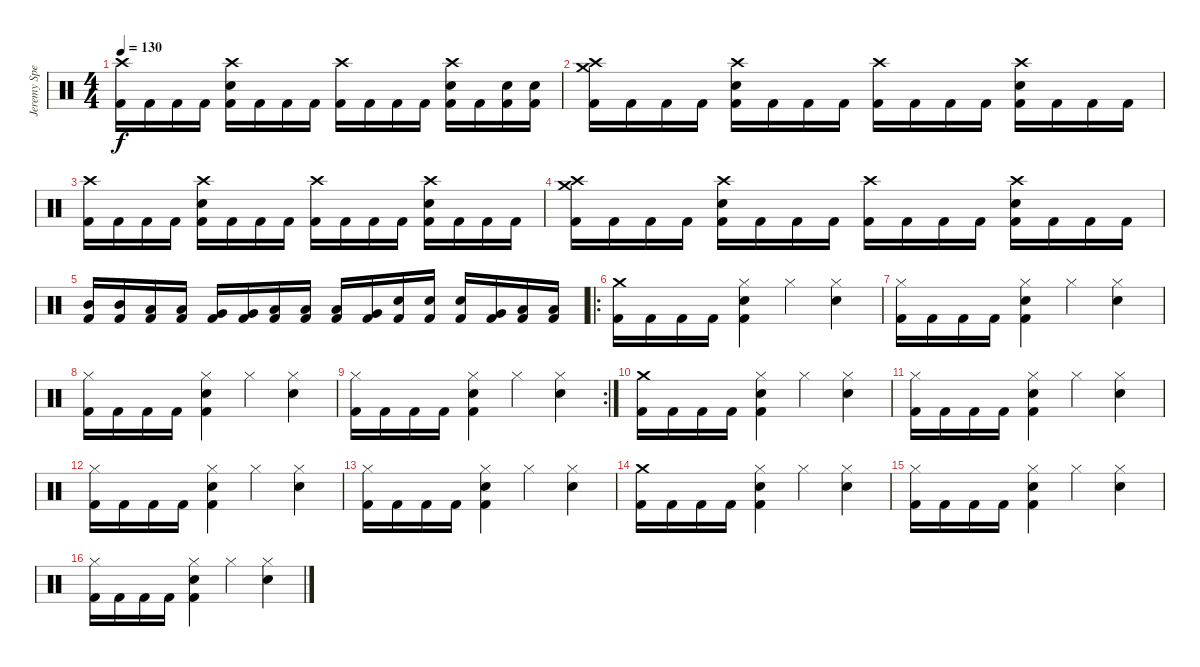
\track ("Jeremy Spencer" "Jeremy Spe") {instrument percussion}
\staff {score}
\articulation defaults
\ts (4 4)
\tempo 130
\clef neutral
\ks c
("Crash high (hit)" "Kick (hit) 2").16{dy f} "Kick (hit) 2".16 "Kick (hit) 2".16 "Kick (hit) 2".16 ("Crash high (hit)" "Snare (hit) 2" "Kick (hit) 2").16 "Kick (hit) 2".16 "Kick (hit) 2".16 "Kick (hit) 2".16 ("Crash high (hit)" "Kick (hit) 2").16 "Kick (hit) 2".16 "Kick (hit) 2".16 "Kick (hit) 2".16 ("Crash high (hit)" "Snare (hit) 2" "Kick (hit) 2").16 "Kick (hit) 2".16 ("Snare (hit) 2" "Kick (hit) 2").16 ("Snare (hit) 2" "Kick (hit) 2").16 |
("Crash high (hit)" "Crash medium (hit)" "Kick (hit) 2").16 "Kick (hit) 2".16 "Kick (hit) 2".16 "Kick (hit) 2".16 ("Crash high (hit)" "Snare (hit) 2" "Kick (hit) 2").16 "Kick (hit) 2".16 "Kick (hit) 2".16 "Kick (hit) 2".16 ("Crash high (hit)" "Kick (hit) 2").16 "Kick (hit) 2".16 "Kick (hit) 2".16 "Kick (hit) 2".16 ("Crash high (hit)" "Snare (hit) 2" "Kick (hit) 2").16 "Kick (hit) 2".16 "Kick (hit) 2".16 "Kick (hit) 2".16 |
("Crash high (hit)" "Kick (hit) 2").16 "Kick (hit) 2".16 "Kick (hit) 2".16 "Kick (hit) 2".16 ("Crash high (hit)" "Snare (hit) 2" "Kick (hit) 2").16 "Kick (hit) 2".16 "Kick (hit) 2".16 "Kick (hit) 2".16 ("Crash high (hit)" "Kick (hit) 2").16 "Kick (hit) 2".16 "Kick (hit) 2".16 "Kick (hit) 2".16 ("Crash high (hit)" "Snare (hit) 2" "Kick (hit) 2").16 "Kick (hit) 2".16 "Kick (hit) 2".16 "Kick (hit) 2".16 |
("Crash high (hit)" "Crash medium (hit)" "Kick (hit) 2").16 "Kick (hit) 2".16 "Kick (hit) 2".16 "Kick (hit) 2".16 ("Crash high (hit)" "Snare (hit) 2" "Kick (hit) 2").16 "Kick (hit) 2".16 "Kick (hit) 2".16 "Kick (hit) 2".16 ("Crash high (hit)" "Kick (hit) 2").16 "Kick (hit) 2".16 "Kick (hit) 2".16 "Kick (hit) 2".16 ("Crash high (hit)" "Snare (hit) 2" "Kick (hit) 2").16 "Kick (hit) 2".16 "Kick (hit) 2".16 "Kick (hit) 2".16 |
("Mid Tom (hit)" "Kick (hit) 2").16 ("Mid Tom (hit)" "Kick (hit) 2").16 ("Low Tom (hit)" "Kick (hit) 2").16 ("Low Tom (hit)" "Kick (hit) 2").16 ("Very Low Tom (hit)" "Kick (hit) 2").16 ("Very Low Tom (hit)" "Kick (hit) 2").16 ("Low Floor Tom (hit)" "Kick (hit) 2").16 ("Low Floor Tom (hit)" "Kick (hit) 2").16 ("Low Tom (hit)" "Kick (hit) 2").16 ("Very Low Tom (hit)" "Kick (hit) 2").16 ("Snare (hit) 2" "Kick (hit) 2").16 ("Snare (hit) 2" "Kick (hit) 2").16 ("Snare (hit) 2" "Kick (hit) 2").16 ("Very Low Tom (hit)" "Kick (hit) 2").16 ("Low Floor Tom (hit)" "Kick (hit) 2").16 ("Low Floor Tom (hit)" "Kick (hit) 2").16 |
\ro
("Crash medium (hit)" "Kick (hit) 2").16 "Kick (hit) 2".16 "Kick (hit) 2".16 "Kick (hit) 2".16 ("Hi-Hat (closed)" "Snare (hit) 2" "Kick (hit) 2").4 "Hi-Hat (closed)".4 ("Hi-Hat (closed)" "Snare (hit) 2").4 |
("Hi-Hat (closed)" "Kick (hit) 2").16 "Kick (hit) 2".16 "Kick (hit) 2".16 "Kick (hit) 2".16 ("Hi-Hat (closed)" "Snare (hit) 2" "Kick (hit) 2").4 "Hi-Hat (closed)".4 ("Hi-Hat (closed)" "Snare (hit) 2").4 |
("Hi-Hat (closed)" "Kick (hit) 2").16 "Kick (hit) 2".16 "Kick (hit) 2".16 "Kick (hit) 2".16 ("Hi-Hat (closed)" "Snare (hit) 2" "Kick (hit) 2").4 "Hi-Hat (closed)".4 ("Hi-Hat (closed)" "Snare (hit) 2").4 |
\rc 2
("Hi-Hat (closed)" "Kick (hit) 2").16 "Kick (hit) 2".16 "Kick (hit) 2".16 "Kick (hit) 2".16 ("Hi-Hat (closed)" "Snare (hit) 2" "Kick (hit) 2").4 "Hi-Hat (closed)".4 ("Hi-Hat (closed)" "Snare (hit) 2").4 |
("Crash medium (hit)" "Kick (hit) 2").16 "Kick (hit) 2".16 "Kick (hit) 2".16 "Kick (hit) 2".16 ("Hi-Hat (closed)" "Snare (hit) 2" "Kick (hit) 2").4 "Hi-Hat (closed)".4 ("Hi-Hat (closed)" "Snare (hit) 2").4 |
("Hi-Hat (closed)" "Kick (hit) 2").16 "Kick (hit) 2".16 "Kick (hit) 2".16 "Kick (hit) 2".16 ("Hi-Hat (closed)" "Snare (hit) 2" "Kick (hit) 2").4 "Hi-Hat (closed)".4 ("Hi-Hat (closed)" "Snare (hit) 2").4 |
("Hi-Hat (closed)" "Kick (hit) 2").16 "Kick (hit) 2".16 "Kick (hit) 2".16 "Kick (hit) 2".16 ("Hi-Hat (closed)" "Snare (hit) 2" "Kick (hit) 2").4 "Hi-Hat (closed)".4 ("Hi-Hat (closed)" "Snare (hit) 2").4 |
("Hi-Hat (closed)" "Kick (hit) 2").16 "Kick (hit) 2".16 "Kick (hit) 2".16 "Kick (hit) 2".16 ("Hi-Hat (closed)" "Snare (hit) 2" "Kick (hit) 2").4 "Hi-Hat (closed)".4 ("Hi-Hat (closed)" "Snare (hit) 2").4 |
("Crash medium (hit)" "Kick (hit) 2").16 "Kick (hit) 2".16 "Kick (hit) 2".16 "Kick (hit) 2".16 ("Hi-Hat (closed)" "Snare (hit) 2" "Kick (hit) 2").4 "Hi-Hat (closed)".4 ("Hi-Hat (closed)" "Snare (hit) 2").4 |
("Hi-Hat (closed)" "Kick (hit) 2").16 "Kick (hit) 2".16 "Kick (hit) 2".16 "Kick (hit) 2".16 ("Hi-Hat (closed)" "Snare (hit) 2" "Kick (hit) 2").4 "Hi-Hat (closed)".4 ("Hi-Hat (closed)" "Snare (hit) 2").4 |
("Hi-Hat (closed)" "Kick (hit) 2").16 "Kick (hit) 2".16 "Kick (hit) 2".16 "Kick (hit) 2".16 ("Hi-Hat (closed)" "Snare (hit) 2" "Kick (hit) 2").4 "Hi-Hat (closed)".4 ("Hi-Hat (closed)" "Snare (hit) 2").4
